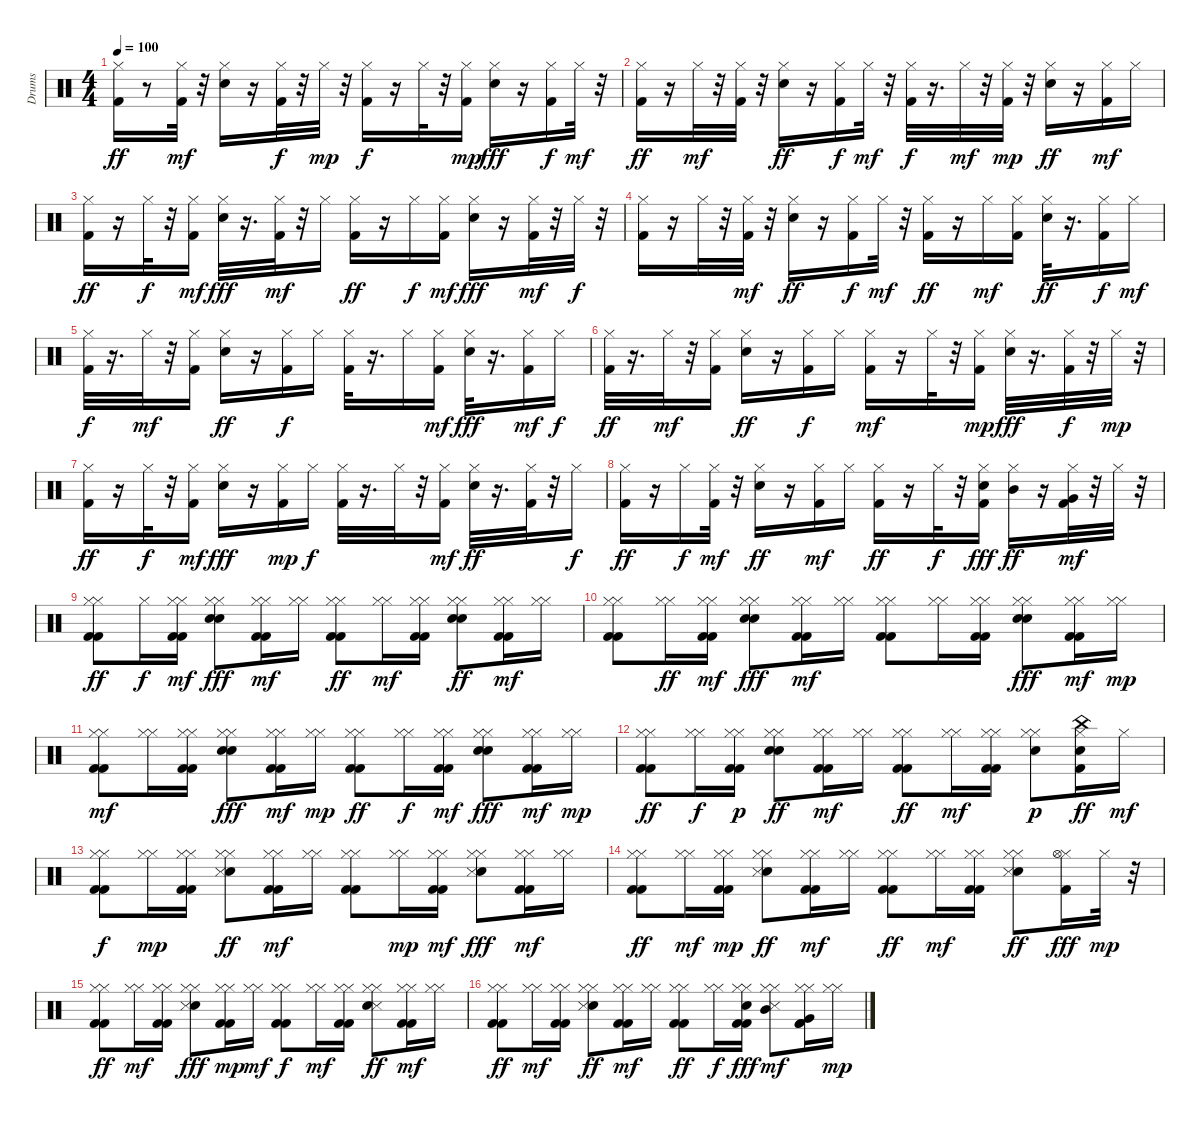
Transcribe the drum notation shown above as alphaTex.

\track ("Drums" "Drums") {instrument percussion}
\staff {score}
\articulation defaults
\ts (4 4)
\tempo 100
\clef neutral
\ks c
("Kick (hit) 2" "Hi-Hat (closed)").16{dy ff} r.8 ("Hi-Hat (closed)" "Kick (hit) 2").32{dy mf} r.32 ("Snare (hit) 2" "Hi-Hat (closed)").16 r.16 ("Kick (hit) 2" "Hi-Hat (closed)").32{dy f} r.32 "Hi-Hat (closed)".32{dy mp} r.32 ("Kick (hit) 2" "Hi-Hat (closed)").16{dy f} r.16 "Hi-Hat (closed)".32 r.32 ("Kick (hit) 2" "Hi-Hat (closed)").16{dy mp} ("Hi-Hat (closed)" "Snare (hit) 2").16{dy fff} r.16 ("Kick (hit) 2" "Hi-Hat (closed)").16{dy f} "Hi-Hat (closed)".32{dy mf} r.32 |
("Kick (hit) 2" "Hi-Hat (closed)").16{dy ff} r.16 "Hi-Hat (closed)".32{dy mf} r.32 ("Kick (hit) 2" "Hi-Hat (closed)").32 r.32 ("Hi-Hat (closed)" "Snare (hit) 2").16{dy ff} r.16 ("Kick (hit) 2" "Hi-Hat (closed)").16{dy f} "Hi-Hat (closed)".32{dy mf} r.32 ("Kick (hit) 2" "Hi-Hat (closed)").32{dy f} r.16{d} "Hi-Hat (closed)".32{dy mf} r.32 ("Kick (hit) 2" "Hi-Hat (closed)").32{dy mp} r.32 ("Hi-Hat (closed)" "Snare (hit) 2").16{dy ff} r.16 ("Hi-Hat (closed)" "Kick (hit) 2").16{dy mf} "Hi-Hat (closed)".16 |
("Hi-Hat (closed)" "Kick (hit) 2").16{dy ff} r.16 "Hi-Hat (closed)".32{dy f} r.32 ("Kick (hit) 2" "Hi-Hat (closed)").16{dy mf} ("Hi-Hat (closed)" "Snare (hit) 2").32{dy fff} r.16{d} ("Kick (hit) 2" "Hi-Hat (closed)").32{dy mf} r.32 "Hi-Hat (closed)".16 ("Hi-Hat (closed)" "Kick (hit) 2").16{dy ff} r.16 "Hi-Hat (closed)".16{dy f} ("Kick (hit) 2" "Hi-Hat (closed)").16{dy mf} ("Hi-Hat (closed)" "Snare (hit) 2").16{dy fff} r.16 ("Kick (hit) 2" "Hi-Hat (closed)").32{dy mf} r.32 "Hi-Hat (closed)".32{dy f} r.32 |
("Hi-Hat (closed)" "Kick (hit) 2").16 r.16 "Hi-Hat (closed)".32 r.32 ("Kick (hit) 2" "Hi-Hat (closed)").32{dy mf} r.32 ("Hi-Hat (closed)" "Snare (hit) 2").16{dy ff} r.16 ("Kick (hit) 2" "Hi-Hat (closed)").16{dy f} "Hi-Hat (closed)".32{dy mf} r.32 ("Kick (hit) 2" "Hi-Hat (closed)").16{dy ff} r.16 "Hi-Hat (closed)".16{dy mf} ("Kick (hit) 2" "Hi-Hat (closed)").16 ("Hi-Hat (closed)" "Snare (hit) 2").32{dy ff} r.16{d} ("Kick (hit) 2" "Hi-Hat (closed)").16{dy f} "Hi-Hat (closed)".16{dy mf} |
("Kick (hit) 2" "Hi-Hat (closed)").32{dy f} r.16{d} "Hi-Hat (closed)".32{dy mf} r.32 ("Kick (hit) 2" "Hi-Hat (closed)").16 ("Hi-Hat (closed)" "Snare (hit) 2").16{dy ff} r.16 ("Kick (hit) 2" "Hi-Hat (closed)").16{dy f} "Hi-Hat (closed)".16 ("Kick (hit) 2" "Hi-Hat (closed)").32 r.16{d} "Hi-Hat (closed)".16 ("Kick (hit) 2" "Hi-Hat (closed)").16{dy mf} ("Hi-Hat (closed)" "Snare (hit) 2").32{dy fff} r.16{d} ("Kick (hit) 2" "Hi-Hat (closed)").16{dy mf} "Hi-Hat (closed)".16{dy f} |
("Kick (hit) 2" "Hi-Hat (closed)").32{dy ff} r.16{d} "Hi-Hat (closed)".32{dy mf} r.32 ("Kick (hit) 2" "Hi-Hat (closed)").16 ("Hi-Hat (closed)" "Snare (hit) 2").16{dy ff} r.16 ("Kick (hit) 2" "Hi-Hat (closed)").16{dy f} "Hi-Hat (closed)".16 ("Hi-Hat (closed)" "Kick (hit) 2").16{dy mf} r.16 "Hi-Hat (closed)".32 r.32 ("Kick (hit) 2" "Hi-Hat (closed)").16{dy mp} ("Hi-Hat (closed)" "Snare (hit) 2").32{dy fff} r.16{d} ("Kick (hit) 2" "Hi-Hat (closed)").32{dy f} r.32 "Hi-Hat (closed)".32{dy mp} r.32 |
("Kick (hit) 2" "Hi-Hat (closed)").16{dy ff} r.16 "Hi-Hat (closed)".32{dy f} r.32 ("Hi-Hat (closed)" "Kick (hit) 2").16{dy mf} ("Hi-Hat (closed)" "Snare (hit) 2").16{dy fff} r.16 ("Kick (hit) 2" "Hi-Hat (closed)").16{dy mp} "Hi-Hat (closed)".16{dy f} ("Kick (hit) 2" "Hi-Hat (closed)").32 r.16{d} "Hi-Hat (closed)".32 r.32 ("Kick (hit) 2" "Hi-Hat (closed)").16{dy mf} ("Hi-Hat (closed)" "Snare (hit) 2").32{dy ff} r.16{d} ("Kick (hit) 2" "Hi-Hat (closed)").32 r.32 "Hi-Hat (closed)".16{dy f} |
("Hi-Hat (closed)" "Kick (hit) 2").16{dy ff} r.16 "Hi-Hat (closed)".16{dy f} ("Kick (hit) 2" "Hi-Hat (closed)").32{dy mf} r.32 ("Hi-Hat (closed)" "Snare (hit) 2").16{dy ff} r.16 ("Hi-Hat (closed)" "Kick (hit) 2").16{dy mf} "Hi-Hat (closed)".16 ("Hi-Hat (closed)" "Kick (hit) 2").16{dy ff} r.16 "Hi-Hat (closed)".32{dy f} r.32 ("Hi-Hat (closed)" "Kick (hit) 2" "Snare (hit) 2").16{dy fff} ("Hi-Hat (closed)" "Mid Tom (hit)").16{dy ff} r.16 ("Kick (hit) 2" "Hi-Hat (closed)" "Very Low Tom (hit)").32{dy mf} r.32 "Hi-Hat (closed)".32 r.32 |
("Kick (hit) 2" "Hi-Hat (closed)" "Kick (hit) 2" "Hi-Hat (closed)").8{dy ff} "Hi-Hat (closed)".16{dy f} ("Hi-Hat (closed)" "Kick (hit) 2" "Kick (hit) 2" "Hi-Hat (closed)").16{dy mf} ("Snare (hit) 2" "Hi-Hat (closed)" "Hi-Hat (closed)" "Snare (hit) 2").8{dy fff} ("Kick (hit) 2" "Hi-Hat (closed)" "Kick (hit) 2" "Hi-Hat (closed)").16{dy mf} ("Hi-Hat (closed)" "Hi-Hat (closed)").16 ("Kick (hit) 2" "Hi-Hat (closed)" "Kick (hit) 2" "Hi-Hat (closed)").8{dy ff} ("Hi-Hat (closed)" "Hi-Hat (closed)").16{dy mf} ("Kick (hit) 2" "Hi-Hat (closed)" "Kick (hit) 2" "Hi-Hat (closed)").16 ("Hi-Hat (closed)" "Hi-Hat (closed)" "Snare (hit) 2" "Snare (hit) 2").8{dy ff} ("Kick (hit) 2" "Hi-Hat (closed)" "Kick (hit) 2" "Hi-Hat (closed)").16{dy mf} ("Hi-Hat (closed)" "Hi-Hat (closed)").16 |
("Kick (hit) 2" "Hi-Hat (closed)" "Kick (hit) 2" "Hi-Hat (closed)").8 ("Hi-Hat (closed)" "Hi-Hat (closed)").16{dy ff} ("Kick (hit) 2" "Hi-Hat (closed)" "Kick (hit) 2" "Hi-Hat (closed)").16{dy mf} ("Hi-Hat (closed)" "Snare (hit) 2" "Hi-Hat (closed)" "Snare (hit) 2").8{dy fff} ("Kick (hit) 2" "Hi-Hat (closed)" "Kick (hit) 2" "Hi-Hat (closed)").16{dy mf} ("Hi-Hat (closed)" "Hi-Hat (closed)").16 ("Kick (hit) 2" "Hi-Hat (closed)" "Kick (hit) 2" "Hi-Hat (closed)").8 ("Hi-Hat (closed)" "Hi-Hat (closed)").16 ("Kick (hit) 2" "Hi-Hat (closed)" "Hi-Hat (closed)" "Kick (hit) 2").16 ("Hi-Hat (closed)" "Hi-Hat (closed)" "Snare (hit) 2" "Snare (hit) 2").8{dy fff} ("Hi-Hat (closed)" "Kick (hit) 2" "Kick (hit) 2" "Hi-Hat (closed)").16{dy mf} ("Hi-Hat (closed)" "Hi-Hat (closed)").16{dy mp} |
("Hi-Hat (closed)" "Kick (hit) 2" "Hi-Hat (closed)" "Kick (hit) 2").8{dy mf} ("Hi-Hat (closed)" "Hi-Hat (closed)").16 ("Kick (hit) 2" "Hi-Hat (closed)" "Kick (hit) 2" "Hi-Hat (closed)").16 ("Hi-Hat (closed)" "Hi-Hat (closed)" "Snare (hit) 2" "Snare (hit) 2").8{dy fff} ("Kick (hit) 2" "Hi-Hat (closed)" "Kick (hit) 2" "Hi-Hat (closed)").16{dy mf} ("Hi-Hat (closed)" "Hi-Hat (closed)").16{dy mp} ("Hi-Hat (closed)" "Kick (hit) 2" "Kick (hit) 2" "Hi-Hat (closed)").8{dy ff} ("Hi-Hat (closed)" "Hi-Hat (closed)").16{dy f} ("Kick (hit) 2" "Hi-Hat (closed)" "Kick (hit) 2" "Hi-Hat (closed)").16{dy mf} ("Hi-Hat (closed)" "Hi-Hat (closed)" "Snare (hit) 2" "Snare (hit) 2").8{dy fff} ("Kick (hit) 2" "Hi-Hat (closed)" "Kick (hit) 2" "Hi-Hat (closed)").16{dy mf} ("Hi-Hat (closed)" "Hi-Hat (closed)").16{dy mp} |
("Hi-Hat (closed)" "Kick (hit) 2" "Hi-Hat (closed)" "Kick (hit) 2").8{dy ff} ("Hi-Hat (closed)" "Hi-Hat (closed)").16{dy f} ("Kick (hit) 2" "Hi-Hat (closed)" "Kick (hit) 2" "Hi-Hat (closed)").16{dy p} ("Hi-Hat (closed)" "Snare (hit) 2" "Hi-Hat (closed)" "Snare (hit) 2").8{dy ff} ("Kick (hit) 2" "Hi-Hat (closed)" "Kick (hit) 2" "Hi-Hat (closed)").16{dy mf} ("Hi-Hat (closed)" "Hi-Hat (closed)").16 ("Kick (hit) 2" "Kick (hit) 2" "Hi-Hat (closed)" "Hi-Hat (closed)").8{dy ff} ("Hi-Hat (closed)" "Hi-Hat (closed)").16{dy mf} ("Kick (hit) 2" "Hi-Hat (closed)" "Kick (hit) 2" "Hi-Hat (closed)").16 ("Hi-Hat (closed)" "Snare (hit) 2" "Hi-Hat (closed)").8{dy p} ("Kick (hit) 2" "Hi-Hat (closed)" "China (hit)" "Snare (hit) 2").16{dy ff} "Hi-Hat (closed)".16{dy mf} |
("Kick (hit) 2" "Hi-Hat (closed)" "Hi-Hat (closed)" "Kick (hit) 2").8{dy f} ("Hi-Hat (closed)" "Hi-Hat (closed)").16{dy mp} ("Kick (hit) 2" "Hi-Hat (closed)" "Kick (hit) 2" "Hi-Hat (closed)").16 ("Hi-Hat (closed)" "Hi-Hat (closed)" "Snare (hit) 2" "Snare (side stick) 3").8{dy ff} ("Kick (hit) 2" "Hi-Hat (closed)" "Hi-Hat (closed)" "Kick (hit) 2").16{dy mf} ("Hi-Hat (closed)" "Hi-Hat (closed)").16 ("Kick (hit) 2" "Hi-Hat (closed)" "Kick (hit) 2" "Hi-Hat (closed)").8 ("Hi-Hat (closed)" "Hi-Hat (closed)").16{dy mp} ("Kick (hit) 2" "Hi-Hat (closed)" "Hi-Hat (closed)" "Kick (hit) 2").16{dy mf} ("Hi-Hat (closed)" "Hi-Hat (closed)" "Snare (hit) 2" "Snare (side stick) 3").8{dy fff} ("Kick (hit) 2" "Hi-Hat (closed)" "Kick (hit) 2" "Hi-Hat (closed)").16{dy mf} ("Hi-Hat (closed)" "Hi-Hat (closed)").16 |
("Kick (hit) 2" "Hi-Hat (closed)" "Hi-Hat (closed)" "Kick (hit) 2").8{dy ff} ("Hi-Hat (closed)" "Hi-Hat (closed)").16{dy mf} ("Kick (hit) 2" "Hi-Hat (closed)" "Kick (hit) 2" "Hi-Hat (closed)").16{dy mp} ("Hi-Hat (closed)" "Hi-Hat (closed)" "Snare (hit) 2" "Snare (side stick) 3").8{dy ff} ("Kick (hit) 2" "Hi-Hat (closed)" "Hi-Hat (closed)" "Kick (hit) 2").16{dy mf} ("Hi-Hat (closed)" "Hi-Hat (closed)").16 ("Hi-Hat (closed)" "Kick (hit) 2" "Kick (hit) 2" "Hi-Hat (closed)").8{dy ff} ("Hi-Hat (closed)" "Hi-Hat (closed)").16{dy mf} ("Kick (hit) 2" "Hi-Hat (closed)" "Kick (hit) 2" "Hi-Hat (closed)").16 ("Hi-Hat (closed)" "Snare (hit) 2" "Snare (side stick) 3" "Hi-Hat (closed)").8{dy ff} ("Kick (hit) 2" "Hi-Hat (closed)" "Hi-Hat (open)").16{dy fff} "Hi-Hat (closed)".32{dy mp} r.32 |
("Kick (hit) 2" "Hi-Hat (closed)" "Kick (hit) 2" "Hi-Hat (closed)").8{dy ff} ("Hi-Hat (closed)" "Hi-Hat (closed)").16{dy mf} ("Hi-Hat (closed)" "Kick (hit) 2" "Hi-Hat (closed)" "Kick (hit) 2").16 ("Hi-Hat (closed)" "Hi-Hat (closed)" "Snare (hit) 2" "Snare (side stick) 3").8{dy fff} ("Kick (hit) 2" "Hi-Hat (closed)" "Hi-Hat (closed)" "Kick (hit) 2").16{dy mp} ("Hi-Hat (closed)" "Hi-Hat (closed)").16{dy mf} ("Kick (hit) 2" "Hi-Hat (closed)" "Hi-Hat (closed)" "Kick (hit) 2").8{dy f} ("Hi-Hat (closed)" "Hi-Hat (closed)").16{dy mf} ("Kick (hit) 2" "Hi-Hat (closed)" "Kick (hit) 2" "Hi-Hat (closed)").16 ("Hi-Hat (closed)" "Snare (side stick) 3" "Snare (hit) 2" "Hi-Hat (closed)").8{dy ff} ("Kick (hit) 2" "Hi-Hat (closed)" "Hi-Hat (closed)" "Kick (hit) 2").16{dy mf} ("Hi-Hat (closed)" "Hi-Hat (closed)").16 |
("Hi-Hat (closed)" "Kick (hit) 2" "Hi-Hat (closed)" "Kick (hit) 2").8{dy ff} ("Hi-Hat (closed)" "Hi-Hat (closed)").16{dy mf} ("Kick (hit) 2" "Hi-Hat (closed)" "Hi-Hat (closed)" "Kick (hit) 2").16 ("Hi-Hat (closed)" "Snare (hit) 2" "Hi-Hat (closed)" "Snare (side stick) 3").8{dy ff} ("Hi-Hat (closed)" "Kick (hit) 2" "Hi-Hat (closed)" "Kick (hit) 2").16{dy mf} ("Hi-Hat (closed)" "Hi-Hat (closed)").16 ("Hi-Hat (closed)" "Kick (hit) 2" "Kick (hit) 2" "Hi-Hat (closed)").8{dy ff} ("Hi-Hat (closed)" "Hi-Hat (closed)").16{dy f} ("Hi-Hat (closed)" "Hi-Hat (closed)" "Kick (hit) 2" "Kick (hit) 2" "Snare (hit) 2").16{dy fff} ("Hi-Hat (closed)" "Hi-Hat (closed)" "Mid Tom (hit)" "Snare (side stick) 3").8{dy mf} ("Kick (hit) 2" "Hi-Hat (closed)" "Hi-Hat (closed)" "Kick (hit) 2" "Very Low Tom (hit)").16 ("Hi-Hat (closed)" "Hi-Hat (closed)").16{dy mp}
